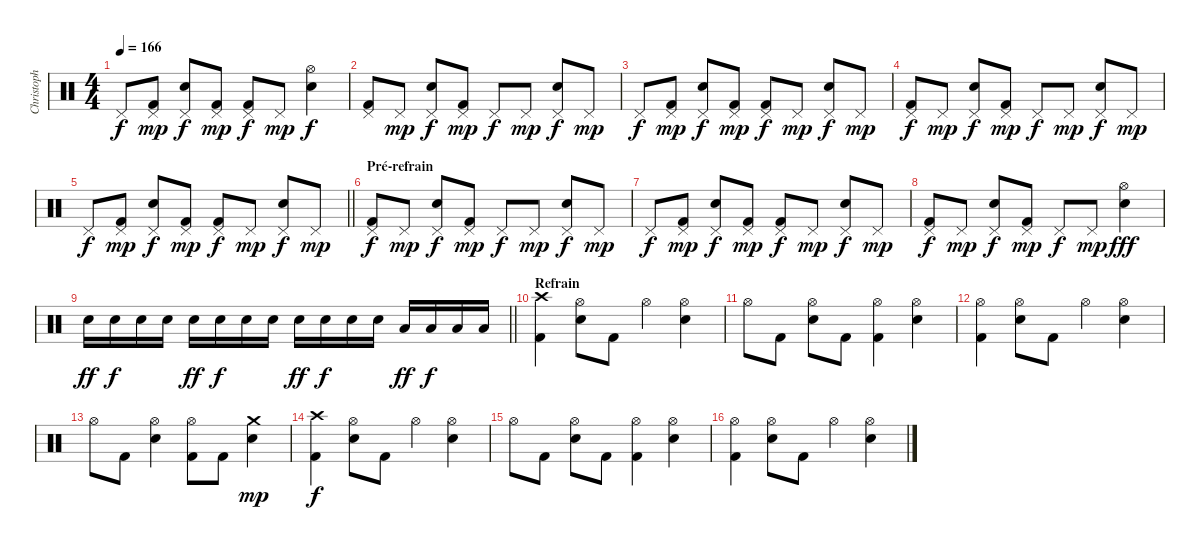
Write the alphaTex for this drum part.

\track ("Christoph" "Christoph") {instrument percussion}
\staff {score}
\articulation defaults
\ts (4 4)
\tempo 166
\clef neutral
\ks c "Pedal Hi-Hat (hit)".8{dy f}
("Pedal Hi-Hat (hit)" "Kick (hit) 2").8{dy mp} ("Pedal Hi-Hat (hit)" "Electric Snare (hit)").8{dy f} ("Pedal Hi-Hat (hit)" "Kick (hit) 2").8{dy mp} ("Pedal Hi-Hat (hit)" "Kick (hit) 2").8{dy f} "Pedal Hi-Hat (hit)".8{dy mp} ("Hi-Hat (open)" "Electric Snare (hit)").4{dy f} |
("Pedal Hi-Hat (hit)" "Kick (hit) 2").8 "Pedal Hi-Hat (hit)".8{dy mp} ("Pedal Hi-Hat (hit)" "Electric Snare (hit)").8{dy f} ("Pedal Hi-Hat (hit)" "Kick (hit) 2").8{dy mp} "Pedal Hi-Hat (hit)".8{dy f} "Pedal Hi-Hat (hit)".8{dy mp} ("Pedal Hi-Hat (hit)" "Electric Snare (hit)").8{dy f} "Pedal Hi-Hat (hit)".8{dy mp} |
"Pedal Hi-Hat (hit)".8{dy f} ("Pedal Hi-Hat (hit)" "Kick (hit) 2").8{dy mp} ("Pedal Hi-Hat (hit)" "Electric Snare (hit)").8{dy f} ("Pedal Hi-Hat (hit)" "Kick (hit) 2").8{dy mp} ("Pedal Hi-Hat (hit)" "Kick (hit) 2").8{dy f} "Pedal Hi-Hat (hit)".8{dy mp} ("Pedal Hi-Hat (hit)" "Electric Snare (hit)").8{dy f} "Pedal Hi-Hat (hit)".8{dy mp} |
("Pedal Hi-Hat (hit)" "Kick (hit) 2").8{dy f} "Pedal Hi-Hat (hit)".8{dy mp} ("Pedal Hi-Hat (hit)" "Electric Snare (hit)").8{dy f} ("Pedal Hi-Hat (hit)" "Kick (hit) 2").8{dy mp} "Pedal Hi-Hat (hit)".8{dy f} "Pedal Hi-Hat (hit)".8{dy mp} ("Pedal Hi-Hat (hit)" "Electric Snare (hit)").8{dy f} "Pedal Hi-Hat (hit)".8{dy mp} |
\barLineRight lightlight "Pedal Hi-Hat (hit)".8{dy f}
("Pedal Hi-Hat (hit)" "Kick (hit) 2").8{dy mp} ("Pedal Hi-Hat (hit)" "Electric Snare (hit)").8{dy f} ("Pedal Hi-Hat (hit)" "Kick (hit) 2").8{dy mp} ("Pedal Hi-Hat (hit)" "Kick (hit) 2").8{dy f} "Pedal Hi-Hat (hit)".8{dy mp} ("Pedal Hi-Hat (hit)" "Electric Snare (hit)").8{dy f} "Pedal Hi-Hat (hit)".8{dy mp} |
\section ("" "Pré-refrain")
("Pedal Hi-Hat (hit)" "Kick (hit) 2").8{dy f} "Pedal Hi-Hat (hit)".8{dy mp} ("Pedal Hi-Hat (hit)" "Electric Snare (hit)").8{dy f} ("Pedal Hi-Hat (hit)" "Kick (hit) 2").8{dy mp} "Pedal Hi-Hat (hit)".8{dy f} "Pedal Hi-Hat (hit)".8{dy mp} ("Pedal Hi-Hat (hit)" "Electric Snare (hit)").8{dy f} "Pedal Hi-Hat (hit)".8{dy mp} |
"Pedal Hi-Hat (hit)".8{dy f} ("Pedal Hi-Hat (hit)" "Kick (hit) 2").8{dy mp} ("Pedal Hi-Hat (hit)" "Electric Snare (hit)").8{dy f} ("Pedal Hi-Hat (hit)" "Kick (hit) 2").8{dy mp} ("Pedal Hi-Hat (hit)" "Kick (hit) 2").8{dy f} "Pedal Hi-Hat (hit)".8{dy mp} ("Pedal Hi-Hat (hit)" "Electric Snare (hit)").8{dy f} "Pedal Hi-Hat (hit)".8{dy mp} |
("Pedal Hi-Hat (hit)" "Kick (hit) 2").8{dy f} "Pedal Hi-Hat (hit)".8{dy mp} ("Pedal Hi-Hat (hit)" "Electric Snare (hit)").8{dy f} ("Pedal Hi-Hat (hit)" "Kick (hit) 2").8{dy mp} "Pedal Hi-Hat (hit)".8{dy f} "Pedal Hi-Hat (hit)".8{dy mp} ("Hi-Hat (open)" "Electric Snare (hit)").4{dy fff} |
\barLineRight lightlight "Electric Snare (hit)".16{dy ff} "Electric Snare (hit)".16{dy f} "Electric Snare (hit)".16 "Electric Snare (hit)".16 "Electric Snare (hit)".16{dy ff} "Electric Snare (hit)".16{dy f} "Electric Snare (hit)".16 "Electric Snare (hit)".16 "Electric Snare (hit)".16{dy ff} "Electric Snare (hit)".16{dy f} "Electric Snare (hit)".16 "Electric Snare (hit)".16 "Low Floor Tom (hit)".16{dy ff} "Low Floor Tom (hit)".16{dy f} "Low Floor Tom (hit)".16 "Low Floor Tom (hit)".16
|
\section ("" "Refrain")
("Crash high (hit)" "Kick (hit) 2").4 ("Hi-Hat (open)" "Electric Snare (hit)").8 "Kick (hit) 2".8 "Hi-Hat (open)".4 ("Hi-Hat (open)" "Electric Snare (hit)").4 |
"Hi-Hat (open)".8 "Kick (hit) 2".8 ("Hi-Hat (open)" "Electric Snare (hit)").8 "Kick (hit) 2".8 ("Hi-Hat (open)" "Kick (hit) 2").4 ("Hi-Hat (open)" "Electric Snare (hit)").4 |
("Hi-Hat (open)" "Kick (hit) 2").4 ("Hi-Hat (open)" "Electric Snare (hit)").8 "Kick (hit) 2".8 "Hi-Hat (open)".4 ("Hi-Hat (open)" "Electric Snare (hit)").4 |
"Hi-Hat (open)".8 "Kick (hit) 2".8 ("Hi-Hat (open)" "Electric Snare (hit)").4 ("Hi-Hat (open)" "Kick (hit) 2").8 "Kick (hit) 2".8 ("Crash medium (hit)" "Electric Snare (hit)").4{dy mp} |
("Crash high (hit)" "Kick (hit) 2").4{dy f} ("Hi-Hat (open)" "Electric Snare (hit)").8 "Kick (hit) 2".8 "Hi-Hat (open)".4 ("Hi-Hat (open)" "Electric Snare (hit)").4 |
"Hi-Hat (open)".8 "Kick (hit) 2".8 ("Hi-Hat (open)" "Electric Snare (hit)").8 "Kick (hit) 2".8 ("Hi-Hat (open)" "Kick (hit) 2").4 ("Hi-Hat (open)" "Electric Snare (hit)").4 |
("Hi-Hat (open)" "Kick (hit) 2").4 ("Hi-Hat (open)" "Electric Snare (hit)").8 "Kick (hit) 2".8 "Hi-Hat (open)".4 ("Hi-Hat (open)" "Electric Snare (hit)").4
